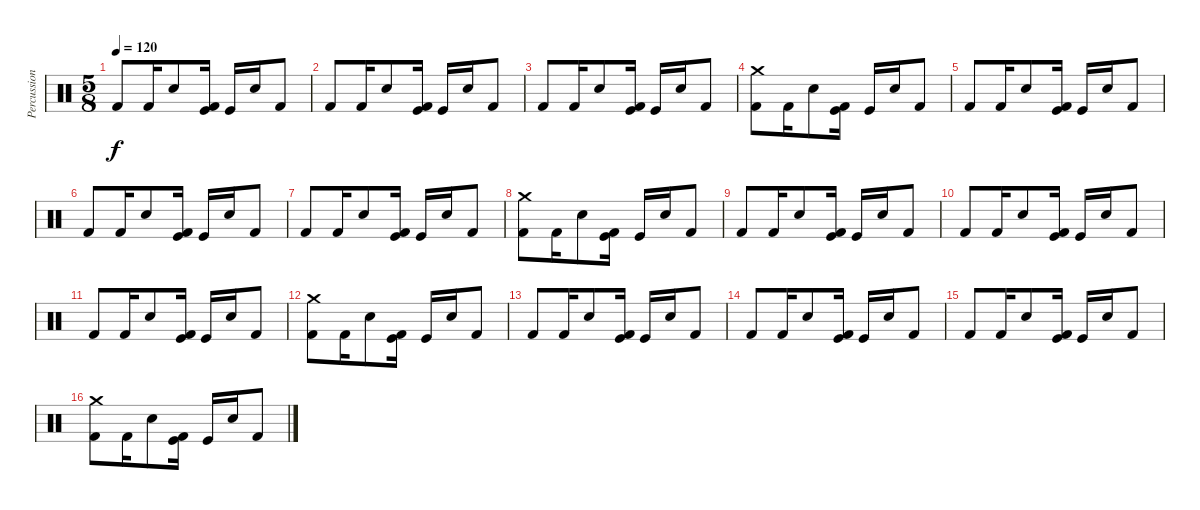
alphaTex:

\track ("Percussion" "Percussion") {instrument percussion}
\staff {score}
\articulation defaults
\ts (5 8)
\tempo 120
\clef neutral
\ks c "Kick (hit) 2".8{dy f} "Kick (hit) 2".16 "Electric Snare (hit)".8
("Kick (hit) 2" "Kick (hit)").16 "Kick (hit)".16 "Electric Snare (hit)".16 "Kick (hit) 2".8 |
"Kick (hit) 2".8 "Kick (hit) 2".16 "Electric Snare (hit)".8 ("Kick (hit) 2" "Kick (hit)").16 "Kick (hit)".16 "Electric Snare (hit)".16 "Kick (hit) 2".8 |
"Kick (hit) 2".8 "Kick (hit) 2".16 "Electric Snare (hit)".8 ("Kick (hit) 2" "Kick (hit)").16 "Kick (hit)".16 "Electric Snare (hit)".16 "Kick (hit) 2".8 |
("Kick (hit) 2" "Crash medium (hit)").8 "Kick (hit) 2".16 "Electric Snare (hit)".8 ("Kick (hit) 2" "Kick (hit)").16 "Kick (hit)".16 "Electric Snare (hit)".16 "Kick (hit) 2".8 |
"Kick (hit) 2".8 "Kick (hit) 2".16 "Electric Snare (hit)".8 ("Kick (hit) 2" "Kick (hit)").16 "Kick (hit)".16 "Electric Snare (hit)".16 "Kick (hit) 2".8 |
"Kick (hit) 2".8 "Kick (hit) 2".16 "Electric Snare (hit)".8 ("Kick (hit) 2" "Kick (hit)").16 "Kick (hit)".16 "Electric Snare (hit)".16 "Kick (hit) 2".8 |
"Kick (hit) 2".8 "Kick (hit) 2".16 "Electric Snare (hit)".8 ("Kick (hit) 2" "Kick (hit)").16 "Kick (hit)".16 "Electric Snare (hit)".16 "Kick (hit) 2".8 |
("Kick (hit) 2" "Crash medium (hit)").8 "Kick (hit) 2".16 "Electric Snare (hit)".8 ("Kick (hit) 2" "Kick (hit)").16 "Kick (hit)".16 "Electric Snare (hit)".16 "Kick (hit) 2".8 |
"Kick (hit) 2".8 "Kick (hit) 2".16 "Electric Snare (hit)".8 ("Kick (hit) 2" "Kick (hit)").16 "Kick (hit)".16 "Electric Snare (hit)".16 "Kick (hit) 2".8 |
"Kick (hit) 2".8 "Kick (hit) 2".16 "Electric Snare (hit)".8 ("Kick (hit) 2" "Kick (hit)").16 "Kick (hit)".16 "Electric Snare (hit)".16 "Kick (hit) 2".8 |
"Kick (hit) 2".8 "Kick (hit) 2".16 "Electric Snare (hit)".8 ("Kick (hit) 2" "Kick (hit)").16 "Kick (hit)".16 "Electric Snare (hit)".16 "Kick (hit) 2".8 |
("Kick (hit) 2" "Crash medium (hit)").8 "Kick (hit) 2".16 "Electric Snare (hit)".8 ("Kick (hit) 2" "Kick (hit)").16 "Kick (hit)".16 "Electric Snare (hit)".16 "Kick (hit) 2".8 |
"Kick (hit) 2".8 "Kick (hit) 2".16 "Electric Snare (hit)".8 ("Kick (hit) 2" "Kick (hit)").16 "Kick (hit)".16 "Electric Snare (hit)".16 "Kick (hit) 2".8 |
"Kick (hit) 2".8 "Kick (hit) 2".16 "Electric Snare (hit)".8 ("Kick (hit) 2" "Kick (hit)").16 "Kick (hit)".16 "Electric Snare (hit)".16 "Kick (hit) 2".8 |
"Kick (hit) 2".8 "Kick (hit) 2".16 "Electric Snare (hit)".8 ("Kick (hit) 2" "Kick (hit)").16 "Kick (hit)".16 "Electric Snare (hit)".16 "Kick (hit) 2".8 |
("Kick (hit) 2" "Crash medium (hit)").8 "Kick (hit) 2".16 "Electric Snare (hit)".8 ("Kick (hit) 2" "Kick (hit)").16 "Kick (hit)".16 "Electric Snare (hit)".16 "Kick (hit) 2".8
